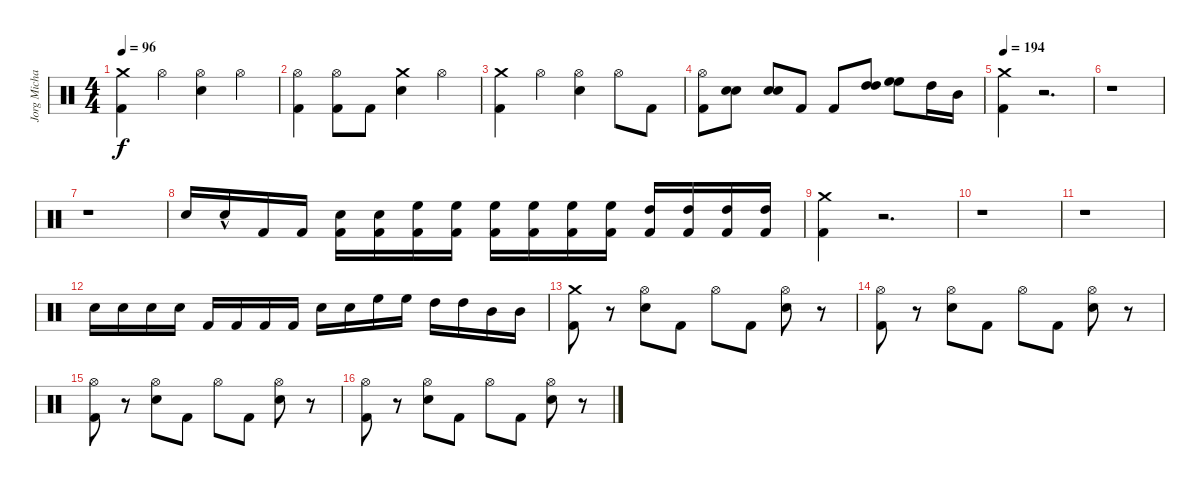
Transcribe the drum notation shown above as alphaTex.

\track ("Jorg Michael" "Jorg Micha") {instrument percussion}
\staff {score}
\articulation defaults
\ts (4 4)
\tempo 96
\clef neutral
\ks c
("Kick (hit) 2" "Crash medium (hit)").4{dy f} "Hi-Hat (open)".4 ("Snare (hit) 2" "Hi-Hat (open)").4 "Hi-Hat (open)".4 |
("Kick (hit) 2" "Hi-Hat (open)").4 ("Kick (hit) 2" "Hi-Hat (open)").8 "Kick (hit) 2".8 ("Snare (hit) 2" "Crash medium (hit)").4 "Hi-Hat (open)".4 |
("Kick (hit) 2" "Crash medium (hit)").4 "Hi-Hat (open)".4 ("Snare (hit) 2" "Hi-Hat (open)").4 "Hi-Hat (open)".8 "Kick (hit) 2".8 |
("Kick (hit) 2" "Hi-Hat (open)").8 ("Snare (hit) 2" "Snare (hit) 2").8 ("Snare (hit) 2" "Snare (hit) 2").8 "Kick (hit) 2".8 "Kick (hit) 2".8 ("High Tom (hit)" "High Tom (hit)").8 ("High Floor Tom (hit)" "High Floor Tom (hit)").8 "High Tom (hit)".16 "Mid Tom (hit)".16 |
\tempo 194
("Kick (hit) 2" "Crash medium (hit)").4 r.2{d} |
r.1 |
r.1 |
"Snare (hit) 2".16 "Snare (hit) 2"{hac}.16 "Kick (hit) 2".16 "Kick (hit) 2".16 ("Snare (hit) 2" "Kick (hit) 2").16 ("Snare (hit) 2" "Kick (hit) 2").16 ("High Floor Tom (hit)" "Kick (hit) 2").16 ("High Floor Tom (hit)" "Kick (hit) 2").16 ("High Floor Tom (hit)" "Kick (hit) 2").16 ("High Floor Tom (hit)" "Kick (hit) 2").16 ("High Floor Tom (hit)" "Kick (hit) 2").16 ("High Floor Tom (hit)" "Kick (hit) 2").16 ("High Tom (hit)" "Kick (hit) 2").16 ("High Tom (hit)" "Kick (hit) 2").16 ("High Tom (hit)" "Kick (hit) 2").16 ("High Tom (hit)" "Kick (hit) 2").16 |
("Crash medium (hit)" "Kick (hit) 2").4 r.2{d} |
r.1 |
r.1 |
"Snare (hit) 2".16 "Snare (hit) 2".16 "Snare (hit) 2".16 "Snare (hit) 2".16 "Kick (hit) 2".16 "Kick (hit) 2".16 "Kick (hit) 2".16 "Kick (hit) 2".16 "Snare (hit) 2".16 "Snare (hit) 2".16 "High Floor Tom (hit)".16 "High Floor Tom (hit)".16 "High Tom (hit)".16 "High Tom (hit)".16 "Mid Tom (hit)".16 "Mid Tom (hit)".16 |
("Crash medium (hit)" "Kick (hit) 2").8 r.8 ("Snare (hit) 2" "Hi-Hat (open)").8 "Kick (hit) 2".8 "Hi-Hat (open)".8 "Kick (hit) 2".8 ("Snare (hit) 2" "Hi-Hat (open)").8 r.8 |
("Hi-Hat (open)" "Kick (hit) 2").8 r.8 ("Snare (hit) 2" "Hi-Hat (open)").8 "Kick (hit) 2".8 "Hi-Hat (open)".8 "Kick (hit) 2".8 ("Snare (hit) 2" "Hi-Hat (open)").8 r.8 |
("Hi-Hat (open)" "Kick (hit) 2").8 r.8 ("Snare (hit) 2" "Hi-Hat (open)").8 "Kick (hit) 2".8 "Hi-Hat (open)".8 "Kick (hit) 2".8 ("Snare (hit) 2" "Hi-Hat (open)").8 r.8 |
("Hi-Hat (open)" "Kick (hit) 2").8 r.8 ("Snare (hit) 2" "Hi-Hat (open)").8 "Kick (hit) 2".8 "Hi-Hat (open)".8 "Kick (hit) 2".8 ("Snare (hit) 2" "Hi-Hat (open)").8 r.8
